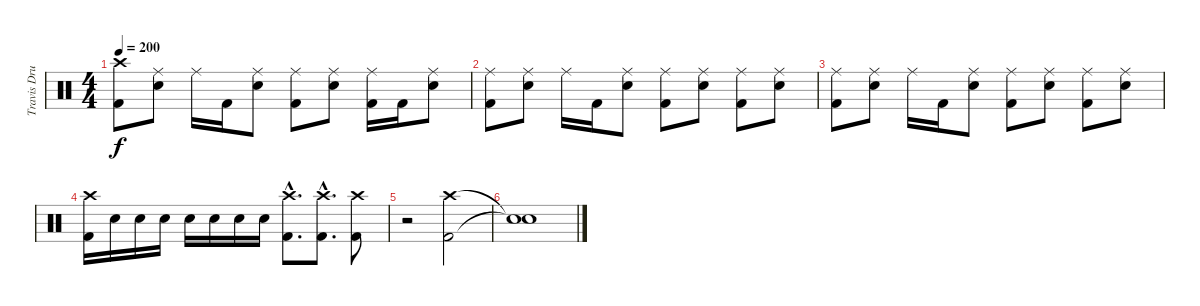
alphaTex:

\track ("Travis Drums" "Travis Dru") {instrument percussion}
\staff {score}
\articulation defaults
\ts (4 4)
\tempo 200
\clef neutral
\ks c
("Crash high (hit)" "Kick (hit) 2").8{dy f} ("Ride (middle)" "Electric Snare (hit)").8 "Ride (middle)".16 "Kick (hit) 2".16 ("Ride (middle)" "Electric Snare (hit)").8 ("Ride (middle)" "Kick (hit) 2").8 ("Ride (middle)" "Electric Snare (hit)").8 ("Ride (middle)" "Kick (hit) 2").16 "Kick (hit) 2".16 ("Ride (middle)" "Electric Snare (hit)").8 |
("Ride (middle)" "Kick (hit) 2").8 ("Ride (middle)" "Electric Snare (hit)").8 "Ride (middle)".16 "Kick (hit) 2".16 ("Ride (middle)" "Electric Snare (hit)").8 ("Ride (middle)" "Kick (hit) 2").8 ("Ride (middle)" "Electric Snare (hit)").8 ("Ride (middle)" "Kick (hit) 2").8 ("Ride (middle)" "Electric Snare (hit)").8 |
("Ride (middle)" "Kick (hit) 2").8 ("Ride (middle)" "Electric Snare (hit)").8 "Ride (middle)".16 "Kick (hit) 2".16 ("Ride (middle)" "Electric Snare (hit)").8 ("Ride (middle)" "Kick (hit) 2").8 ("Ride (middle)" "Electric Snare (hit)").8 ("Ride (middle)" "Kick (hit) 2").8 ("Ride (middle)" "Electric Snare (hit)").8 |
("Crash high (hit)" "Kick (hit) 2").16 "Electric Snare (hit)".16 "Electric Snare (hit)".16 "Electric Snare (hit)".16 "Electric Snare (hit)".16 "Electric Snare (hit)".16 "Electric Snare (hit)".16 "Electric Snare (hit)".16 ("Crash high (hit)"{hac} "Kick (hit) 2"{hac}).8{d} ("Crash high (hit)"{hac} "Kick (hit) 2"{hac}).8{d} ("Crash high (hit)" "Kick (hit) 2").8 |
r.2 ("Crash high (hit)" "Kick (hit) 2").2 |
("Snare (hit)"{t} "Snare (hit)"{t}).1
